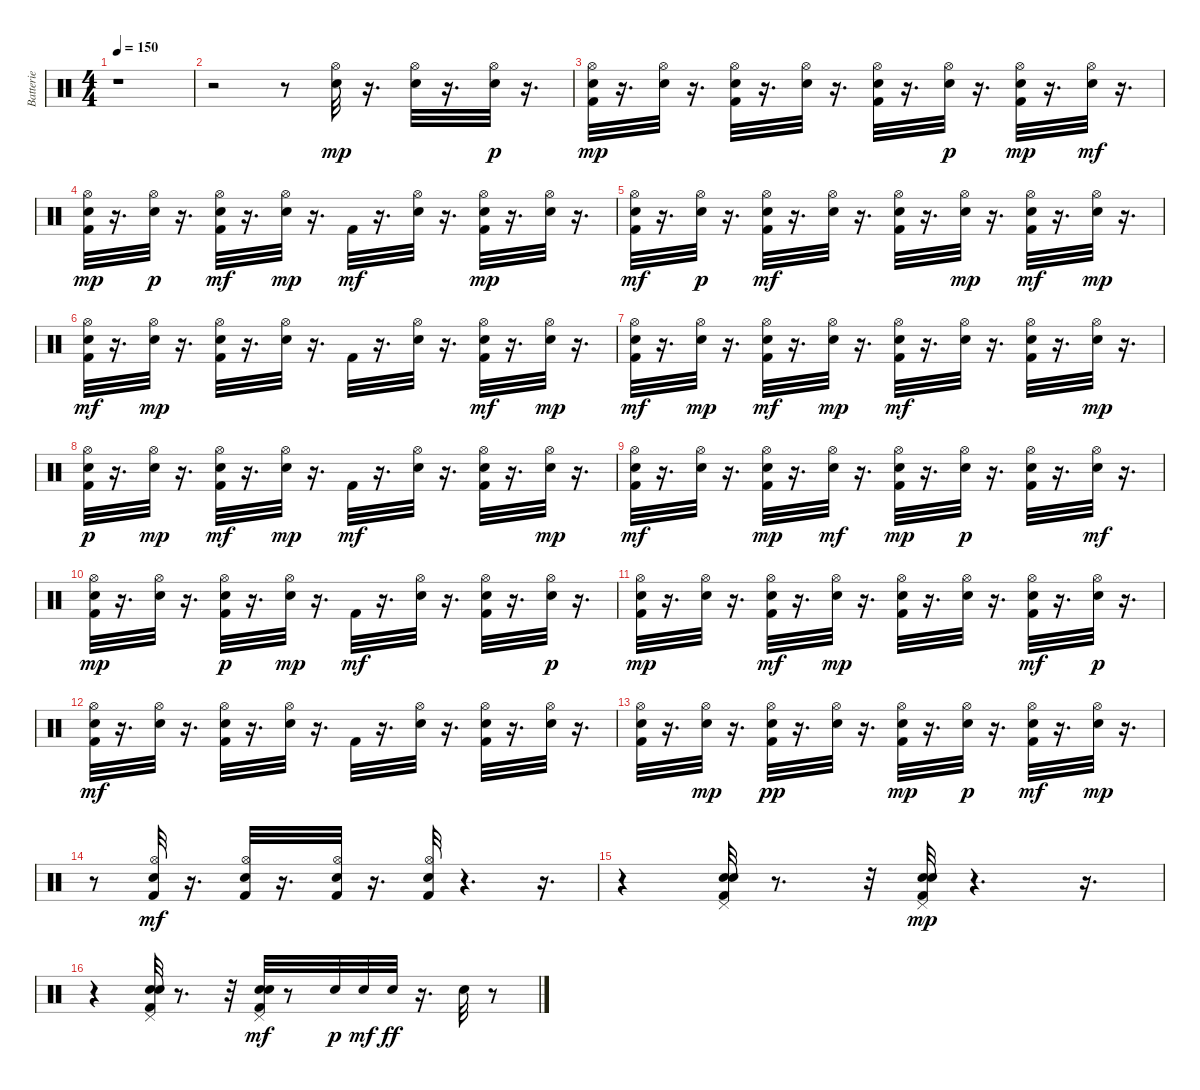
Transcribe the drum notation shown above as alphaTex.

\track ("Batterie" "Batterie") {instrument percussion}
\staff {score}
\articulation defaults
\ts (4 4)
\tempo 150
\clef neutral
\ks c
r.1{dy mp} |
r.2 r.8 ("Electric Snare (hit)" "Hi-Hat (open)").32 r.16{d} ("Electric Snare (hit)" "Hi-Hat (open)").32 r.16{d} ("Electric Snare (hit)" "Hi-Hat (open)").32{dy p} r.16{d} |
("Kick (hit) 2" "Electric Snare (hit)" "Hi-Hat (open)").32{dy mp} r.16{d} ("Electric Snare (hit)" "Hi-Hat (open)").32 r.16{d} ("Kick (hit) 2" "Hi-Hat (open)" "Electric Snare (hit)").32 r.16{d} ("Hi-Hat (open)" "Electric Snare (hit)").32 r.16{d} ("Kick (hit) 2" "Hi-Hat (open)" "Electric Snare (hit)").32 r.16{d} ("Hi-Hat (open)" "Electric Snare (hit)").32{dy p} r.16{d} ("Kick (hit) 2" "Electric Snare (hit)" "Hi-Hat (open)").32{dy mp} r.16{d} ("Hi-Hat (open)" "Electric Snare (hit)").32{dy mf} r.16{d} |
("Hi-Hat (open)" "Kick (hit) 2" "Electric Snare (hit)").32{dy mp} r.16{d} ("Hi-Hat (open)" "Electric Snare (hit)").32{dy p} r.16{d} ("Hi-Hat (open)" "Electric Snare (hit)" "Kick (hit) 2").32{dy mf} r.16{d} ("Hi-Hat (open)" "Electric Snare (hit)").32{dy mp} r.16{d} "Kick (hit) 2".32{dy mf} r.16{d} ("Hi-Hat (open)" "Electric Snare (hit)").32 r.16{d} ("Hi-Hat (open)" "Electric Snare (hit)" "Kick (hit) 2").32{dy mp} r.16{d} ("Hi-Hat (open)" "Electric Snare (hit)").32 r.16{d} |
("Hi-Hat (open)" "Electric Snare (hit)" "Kick (hit) 2").32{dy mf} r.16{d} ("Hi-Hat (open)" "Electric Snare (hit)").32{dy p} r.16{d} ("Hi-Hat (open)" "Electric Snare (hit)" "Kick (hit) 2").32{dy mf} r.16{d} ("Hi-Hat (open)" "Electric Snare (hit)").32 r.16{d} ("Hi-Hat (open)" "Electric Snare (hit)" "Kick (hit) 2").32 r.16{d} ("Electric Snare (hit)" "Hi-Hat (open)").32{dy mp} r.16{d} ("Electric Snare (hit)" "Hi-Hat (open)" "Kick (hit) 2").32{dy mf} r.16{d} ("Hi-Hat (open)" "Electric Snare (hit)").32{dy mp} r.16{d} |
("Electric Snare (hit)" "Hi-Hat (open)" "Kick (hit) 2").32{dy mf} r.16{d} ("Electric Snare (hit)" "Hi-Hat (open)").32{dy mp} r.16{d} ("Electric Snare (hit)" "Hi-Hat (open)" "Kick (hit) 2").32 r.16{d} ("Electric Snare (hit)" "Hi-Hat (open)").32 r.16{d} "Kick (hit) 2".32 r.16{d} ("Electric Snare (hit)" "Hi-Hat (open)").32 r.16{d} ("Electric Snare (hit)" "Hi-Hat (open)" "Kick (hit) 2").32{dy mf} r.16{d} ("Electric Snare (hit)" "Hi-Hat (open)").32{dy mp} r.16{d} |
("Hi-Hat (open)" "Electric Snare (hit)" "Kick (hit) 2").32{dy mf} r.16{d} ("Hi-Hat (open)" "Electric Snare (hit)").32{dy mp} r.16{d} ("Hi-Hat (open)" "Electric Snare (hit)" "Kick (hit) 2").32{dy mf} r.16{d} ("Hi-Hat (open)" "Electric Snare (hit)").32{dy mp} r.16{d} ("Electric Snare (hit)" "Hi-Hat (open)" "Kick (hit) 2").32{dy mf} r.16{d} ("Hi-Hat (open)" "Electric Snare (hit)").32 r.16{d} ("Electric Snare (hit)" "Hi-Hat (open)" "Kick (hit) 2").32 r.16{d} ("Electric Snare (hit)" "Hi-Hat (open)").32{dy mp} r.16{d} |
("Electric Snare (hit)" "Kick (hit) 2" "Hi-Hat (open)").32{dy p} r.16{d} ("Electric Snare (hit)" "Hi-Hat (open)").32{dy mp} r.16{d} ("Hi-Hat (open)" "Electric Snare (hit)" "Kick (hit) 2").32{dy mf} r.16{d} ("Hi-Hat (open)" "Electric Snare (hit)").32{dy mp} r.16{d} "Kick (hit) 2".32{dy mf} r.16{d} ("Electric Snare (hit)" "Hi-Hat (open)").32 r.16{d} ("Hi-Hat (open)" "Electric Snare (hit)" "Kick (hit) 2").32 r.16{d} ("Hi-Hat (open)" "Electric Snare (hit)").32{dy mp} r.16{d} |
("Hi-Hat (open)" "Electric Snare (hit)" "Kick (hit) 2").32{dy mf} r.16{d} ("Hi-Hat (open)" "Electric Snare (hit)").32 r.16{d} ("Hi-Hat (open)" "Electric Snare (hit)" "Kick (hit) 2").32{dy mp} r.16{d} ("Electric Snare (hit)" "Hi-Hat (open)").32{dy mf} r.16{d} ("Electric Snare (hit)" "Kick (hit) 2" "Hi-Hat (open)").32{dy mp} r.16{d} ("Hi-Hat (open)" "Electric Snare (hit)").32{dy p} r.16{d} ("Hi-Hat (open)" "Electric Snare (hit)" "Kick (hit) 2").32 r.16{d} ("Hi-Hat (open)" "Electric Snare (hit)").32{dy mf} r.16{d} |
("Kick (hit) 2" "Hi-Hat (open)" "Electric Snare (hit)").32{dy mp} r.16{d} ("Electric Snare (hit)" "Hi-Hat (open)").32 r.16{d} ("Electric Snare (hit)" "Kick (hit) 2" "Hi-Hat (open)").32{dy p} r.16{d} ("Electric Snare (hit)" "Hi-Hat (open)").32{dy mp} r.16{d} "Kick (hit) 2".32{dy mf} r.16{d} ("Hi-Hat (open)" "Electric Snare (hit)").32 r.16{d} ("Hi-Hat (open)" "Electric Snare (hit)" "Kick (hit) 2").32 r.16{d} ("Electric Snare (hit)" "Hi-Hat (open)").32{dy p} r.16{d} |
("Electric Snare (hit)" "Hi-Hat (open)" "Kick (hit) 2").32{dy mp} r.16{d} ("Electric Snare (hit)" "Hi-Hat (open)").32 r.16{d} ("Electric Snare (hit)" "Hi-Hat (open)" "Kick (hit) 2").32{dy mf} r.16{d} ("Electric Snare (hit)" "Hi-Hat (open)").32{dy mp} r.16{d} ("Hi-Hat (open)" "Electric Snare (hit)" "Kick (hit) 2").32 r.16{d} ("Hi-Hat (open)" "Electric Snare (hit)").32 r.16{d} ("Hi-Hat (open)" "Electric Snare (hit)" "Kick (hit) 2").32{dy mf} r.16{d} ("Hi-Hat (open)" "Electric Snare (hit)").32{dy p} r.16{d} |
("Hi-Hat (open)" "Electric Snare (hit)" "Kick (hit) 2").32{dy mf} r.16{d} ("Hi-Hat (open)" "Electric Snare (hit)").32 r.16{d} ("Hi-Hat (open)" "Electric Snare (hit)" "Kick (hit) 2").32 r.16{d} ("Hi-Hat (open)" "Electric Snare (hit)").32 r.16{d} "Kick (hit) 2".32 r.16{d} ("Hi-Hat (open)" "Electric Snare (hit)").32 r.16{d} ("Hi-Hat (open)" "Electric Snare (hit)" "Kick (hit) 2").32 r.16{d} ("Hi-Hat (open)" "Electric Snare (hit)").32 r.16{d} |
("Hi-Hat (open)" "Electric Snare (hit)" "Kick (hit) 2").32 r.16{d} ("Electric Snare (hit)" "Hi-Hat (open)").32{dy mp} r.16{d} ("Electric Snare (hit)" "Kick (hit) 2" "Hi-Hat (open)").32{dy pp} r.16{d} ("Electric Snare (hit)" "Hi-Hat (open)").32 r.16{d} ("Kick (hit) 2" "Electric Snare (hit)" "Hi-Hat (open)").32{dy mp} r.16{d} ("Electric Snare (hit)" "Hi-Hat (open)").32{dy p} r.16{d} ("Electric Snare (hit)" "Hi-Hat (open)" "Kick (hit) 2").32{dy mf} r.16{d} ("Hi-Hat (open)" "Electric Snare (hit)").32{dy mp} r.16{d} |
r.8 ("Hi-Hat (open)" "Kick (hit) 2" "Electric Snare (hit)").32{dy mf} r.16{d} ("Hi-Hat (open)" "Electric Snare (hit)" "Kick (hit) 2").32 r.16{d} ("Hi-Hat (open)" "Electric Snare (hit)" "Kick (hit) 2").32 r.16{d} ("Electric Snare (hit)" "Hi-Hat (open)" "Kick (hit) 2").32 r.4{d} r.16{d} |
r.4 ("Electric Snare (hit)" "Kick (hit) 2" "Electric Snare (hit)" "Pedal Hi-Hat (hit)").32 r.8{d} r.32 ("Electric Snare (hit)" "Pedal Hi-Hat (hit)" "Kick (hit) 2" "Electric Snare (hit)").32{dy mp} r.4{d} r.16{d} |
r.4 ("Pedal Hi-Hat (hit)" "Kick (hit) 2" "Electric Snare (hit)" "Electric Snare (hit)").32 r.8{d} r.32 ("Electric Snare (hit)" "Electric Snare (hit)" "Pedal Hi-Hat (hit)" "Kick (hit) 2").32{dy mf} r.8 "Electric Snare (hit)".32{dy p} "Electric Snare (hit)".32{dy mf} "Electric Snare (hit)".32{dy ff} r.16{d} "Electric Snare (hit)".32 r.8
